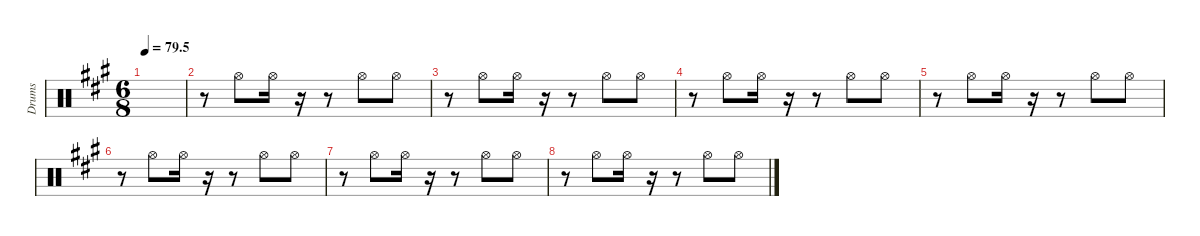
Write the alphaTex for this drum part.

\defaultSystemsLayout 4
\hideDynamics
\bracketExtendMode nobrackets
\otherSystemsTrackNameOrientation horizontal
\track ("Hihat" "Drums") {instrument percussion}
\staff {score}
\articulation defaults
\ts (6 8)
\tempo
79.5
\accidentals auto
\clef neutral
\ottava regular
\simile none
\scale
0.333333
\ks a
|
\scale
0.333333 r.8 "Hi-Hat (open)"{acc forcenatural}.8 "Hi-Hat (open)"{acc forcenatural}.16 r.16 r.8 "Hi-Hat (open)"{acc forcenatural}.8 "Hi-Hat (open)"{acc forcenatural}.8 |
\scale
0.333333 r.8 "Hi-Hat (open)"{acc forcenatural}.8 "Hi-Hat (open)"{acc forcenatural}.16 r.16 r.8 "Hi-Hat (open)"{acc forcenatural}.8 "Hi-Hat (open)"{acc forcenatural}.8 |
\scale
0.333333 r.8 "Hi-Hat (open)"{acc forcenatural}.8 "Hi-Hat (open)"{acc forcenatural}.16 r.16 r.8 "Hi-Hat (open)"{acc forcenatural}.8 "Hi-Hat (open)"{acc forcenatural}.8 |
\scale
0.333333 r.8 "Hi-Hat (open)"{acc forcenatural}.8 "Hi-Hat (open)"{acc forcenatural}.16 r.16 r.8 "Hi-Hat (open)"{acc forcenatural}.8 "Hi-Hat (open)"{acc forcenatural}.8 |
\scale
0.333333 r.8 "Hi-Hat (open)"{acc forcenatural}.8 "Hi-Hat (open)"{acc forcenatural}.16 r.16 r.8 "Hi-Hat (open)"{acc forcenatural}.8 "Hi-Hat (open)"{acc forcenatural}.8 |
\scale
0.333333 r.8 "Hi-Hat (open)"{acc forcenatural}.8 "Hi-Hat (open)"{acc forcenatural}.16 r.16 r.8 "Hi-Hat (open)"{acc forcenatural}.8 "Hi-Hat (open)"{acc forcenatural}.8 |
\scale
0.333333 r.8 "Hi-Hat (open)"{acc forcenatural}.8 "Hi-Hat (open)"{acc forcenatural}.16 r.16 r.8 "Hi-Hat (open)"{acc forcenatural}.8 "Hi-Hat (open)"{acc forcenatural}.8 |
\scale
0.333333 |
\scale
0.333333 |
\scale
0.333333 |
\scale
0.333333
